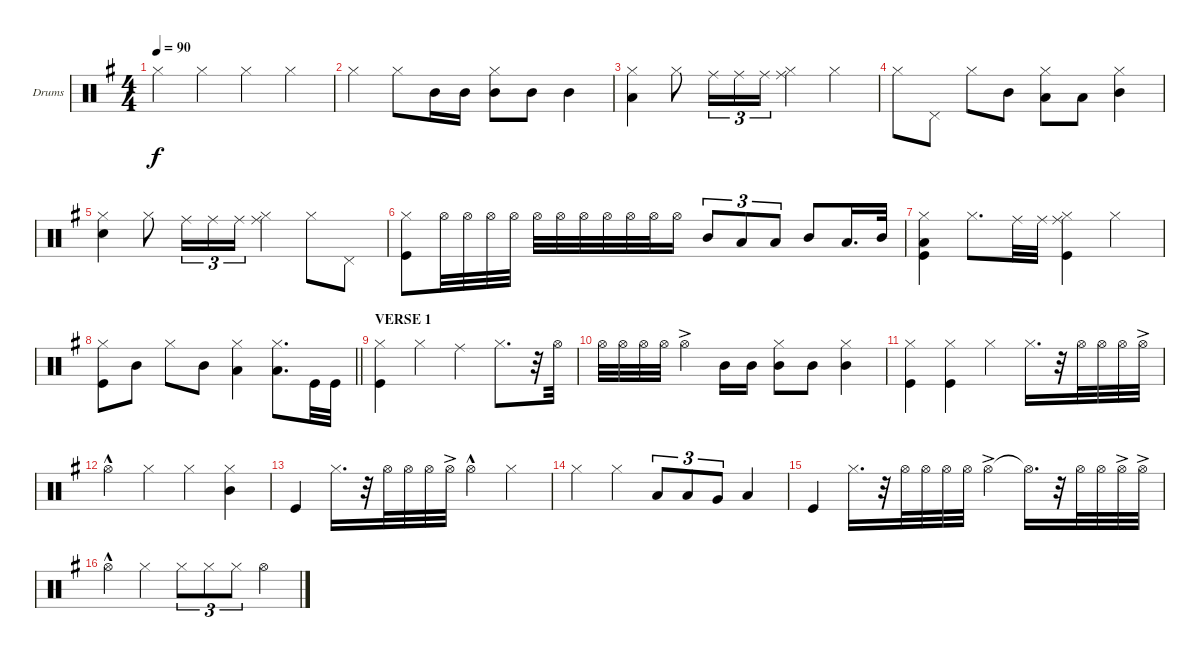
\bracketExtendMode groupsimilarinstruments
\firstSystemTrackNameOrientation horizontal
\otherSystemsTrackNameOrientation horizontal
\track ("Drumkit" "Drums") {instrument percussion}
\staff {score}
\articulation defaults
\ts (4 4)
\tempo 90
\clef neutral
\ks eminor "Hi-Hat (closed)".4{dy f} "Hi-Hat (closed)".4 "Hi-Hat (closed)".4 "Hi-Hat (closed)".4
|
"Hi-Hat (closed)".4 "Hi-Hat (closed)".8 "Mid Tom (hit)".16 "Mid Tom (hit)".16 ("Hi-Hat (closed)" "Mid Tom (hit)").8 "Mid Tom (hit)".8 "Mid Tom (hit)".4 |
("Hi-Hat (closed)" "Low Tom (hit)").4 "Hi-Hat (closed)".8 "Ride (middle)".16{tu (3 2)} "Ride (middle)".16{tu (3 2)} "Ride (middle)".16{tu (3 2)} ("Ride (middle)" "Hi-Hat (closed)").4 "Hi-Hat (closed)".4 |
"Hi-Hat (closed)".8 "Pedal Hi-Hat (hit)".8 "Hi-Hat (closed)".8 "Mid Tom (hit)".8 ("Hi-Hat (closed)" "Low Tom (hit)").8 "Low Tom (hit)".8 ("Hi-Hat (closed)" "Mid Tom (hit)").4 |
("Hi-Hat (closed)" "Snare (hit) 2").4 "Hi-Hat (closed)".8 "Ride (middle)".16{tu (3 2)} "Ride (middle)".16{tu (3 2)} "Ride (middle)".16{tu (3 2)} ("Ride (middle)" "Hi-Hat (closed)").4 "Hi-Hat (closed)".8 "Pedal Hi-Hat (hit)".8 |
("Hi-Hat (closed)" "Kick (hit)").8 "Hi-Hat (open)".32 "Hi-Hat (open)".32 "Hi-Hat (open)".32 "Hi-Hat (open)".32 "Hi-Hat (open)".32 "Hi-Hat (open)".32 "Hi-Hat (open)".32 "Hi-Hat (open)".32 "Hi-Hat (open)".32 "Hi-Hat (open)".32 "Hi-Hat (open)".16 "Mid Tom (hit)".8{tu (3 2)} "Low Tom (hit)".8{tu (3 2)} "Low Tom (hit)".8{tu (3 2)} "Mid Tom (hit)".8 "Low Tom (hit)".16{d} "Mid Tom (hit)".32 |
("Hi-Hat (closed)" "Low Tom (hit)" "Kick (hit)").4 "Hi-Hat (closed)".8{d} "Ride (middle)".32 "Ride (middle)".32 ("Ride (middle)" "Hi-Hat (closed)" "Kick (hit)").4 "Hi-Hat (closed)".4 |
\barLineRight lightlight
("Hi-Hat (closed)" "Kick (hit)").8 "Mid Tom (hit)".8 "Hi-Hat (closed)".8 "Mid Tom (hit)".8 ("Hi-Hat (closed)" "Low Tom (hit)").4 ("Hi-Hat (closed)" "Low Tom (hit)").8{d} "Kick (hit)".32 "Kick (hit)".32 |
\section ("" "VERSE 1")
("Hi-Hat (closed)" "Kick (hit)").4 "Hi-Hat (closed)".4 "Ride (middle)".4 "Hi-Hat (closed)".8{d} r.32 "Hi-Hat (open)".32 |
"Hi-Hat (open)".32 "Hi-Hat (open)".32 "Hi-Hat (open)".32 "Hi-Hat (open)".32 "Hi-Hat (open)"{ac}.4 "Mid Tom (hit)".16 "Mid Tom (hit)".16 ("Hi-Hat (closed)" "Mid Tom (hit)").8 "Mid Tom (hit)".8 ("Hi-Hat (closed)" "Mid Tom (hit)").4 |
("Hi-Hat (closed)" "Kick (hit)").4 ("Hi-Hat (closed)" "Kick (hit)").4 "Hi-Hat (closed)".4 "Hi-Hat (closed)".16{d} r.32 "Hi-Hat (open)".32 "Hi-Hat (open)".32 "Hi-Hat (open)".32 "Hi-Hat (open)"{ac}.32 |
"Hi-Hat (open)"{hac}.4 "Hi-Hat (closed)".4 "Hi-Hat (closed)".4 ("Hi-Hat (closed)" "Mid Tom (hit)").4 |
"Kick (hit)".4 "Hi-Hat (closed)".16{d} r.32 "Hi-Hat (open)".32 "Hi-Hat (open)".32 "Hi-Hat (open)".32 "Hi-Hat (open)"{ac}.32 "Hi-Hat (open)"{hac}.4 "Hi-Hat (closed)".4 |
"Hi-Hat (closed)".4 "Hi-Hat (closed)".4 "Low Tom (hit)".8{tu (3 2)} "Low Tom (hit)".8{tu (3 2)} "Very Low Tom (hit)".8{tu (3 2)} "Low Tom (hit)".4 |
"Kick (hit)".4 "Hi-Hat (closed)".16{d} r.32 "Hi-Hat (open)".32 "Hi-Hat (open)".32 "Hi-Hat (open)".32 "Hi-Hat (open)".32 "Hi-Hat (open)"{ac}.4 "Hi-Hat (open)"{t}.16{d} r.32 "Hi-Hat (open)".32 "Hi-Hat (open)".32 "Hi-Hat (open)"{ac}.32 "Hi-Hat (open)"{ac}.32 |
"Hi-Hat (open)"{hac}.4 "Hi-Hat (closed)".4 "Hi-Hat (closed)".8{tu (3 2)} "Hi-Hat (closed)".8{tu (3 2)} "Hi-Hat (closed)".8{tu (3 2)} "Hi-Hat (open)".4
